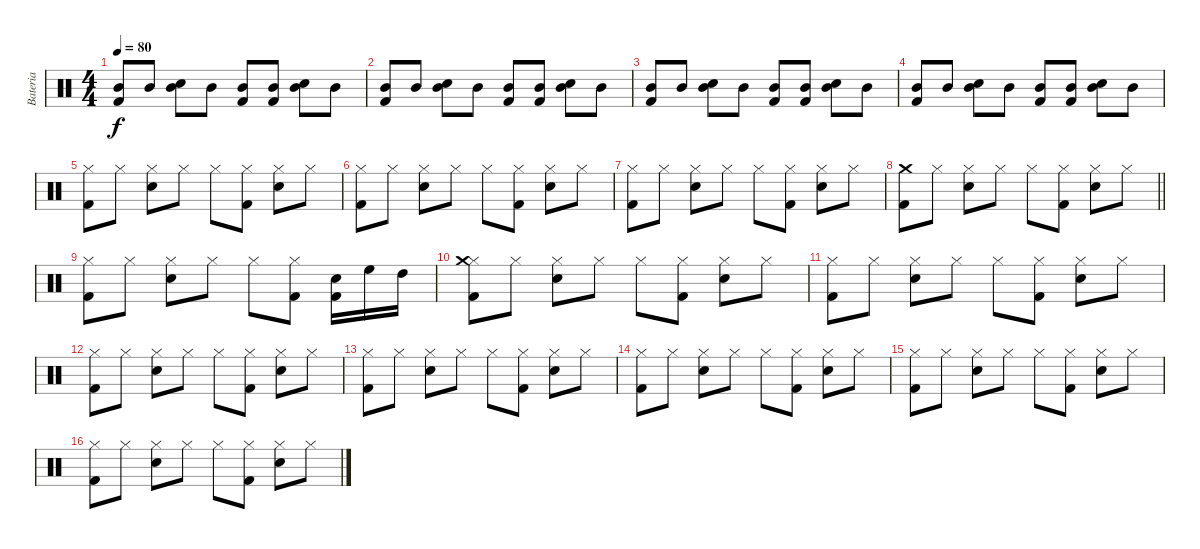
\track ("Bateria" "Bateria") {instrument percussion}
\staff {score}
\articulation defaults
\ts (4 4)
\tempo 80
\clef neutral
\ks c
("Mid Tom (hit)" "Kick (hit) 2").8{dy f} "Mid Tom (hit)".8 ("Mid Tom (hit)" "Snare (hit) 2").8 "Mid Tom (hit)".8 ("Mid Tom (hit)" "Kick (hit) 2").8 ("Mid Tom (hit)" "Kick (hit) 2").8 ("Mid Tom (hit)" "Snare (hit) 2").8 "Mid Tom (hit)".8 |
("Mid Tom (hit)" "Kick (hit) 2").8 "Mid Tom (hit)".8 ("Mid Tom (hit)" "Snare (hit) 2").8 "Mid Tom (hit)".8 ("Mid Tom (hit)" "Kick (hit) 2").8 ("Mid Tom (hit)" "Kick (hit) 2").8 ("Mid Tom (hit)" "Snare (hit) 2").8 "Mid Tom (hit)".8 |
("Mid Tom (hit)" "Kick (hit) 2").8 "Mid Tom (hit)".8 ("Mid Tom (hit)" "Snare (hit) 2").8 "Mid Tom (hit)".8 ("Mid Tom (hit)" "Kick (hit) 2").8 ("Mid Tom (hit)" "Kick (hit) 2").8 ("Mid Tom (hit)" "Snare (hit) 2").8 "Mid Tom (hit)".8 |
("Mid Tom (hit)" "Kick (hit) 2").8 "Mid Tom (hit)".8 ("Mid Tom (hit)" "Snare (hit) 2").8 "Mid Tom (hit)".8 ("Mid Tom (hit)" "Kick (hit) 2").8 ("Mid Tom (hit)" "Kick (hit) 2").8 ("Mid Tom (hit)" "Snare (hit) 2").8 "Mid Tom (hit)".8 |
("Hi-Hat (closed)" "Kick (hit) 2").8 "Hi-Hat (closed)".8 ("Hi-Hat (closed)" "Snare (hit) 2").8 "Hi-Hat (closed)".8 "Hi-Hat (closed)".8 ("Hi-Hat (closed)" "Kick (hit) 2").8 ("Hi-Hat (closed)" "Snare (hit) 2").8 "Hi-Hat (closed)".8 |
("Hi-Hat (closed)" "Kick (hit) 2").8 "Hi-Hat (closed)".8 ("Hi-Hat (closed)" "Snare (hit) 2").8 "Hi-Hat (closed)".8 "Hi-Hat (closed)".8 ("Hi-Hat (closed)" "Kick (hit) 2").8 ("Hi-Hat (closed)" "Snare (hit) 2").8 "Hi-Hat (closed)".8 |
("Hi-Hat (closed)" "Kick (hit) 2").8 "Hi-Hat (closed)".8 ("Hi-Hat (closed)" "Snare (hit) 2").8 "Hi-Hat (closed)".8 "Hi-Hat (closed)".8 ("Hi-Hat (closed)" "Kick (hit) 2").8 ("Hi-Hat (closed)" "Snare (hit) 2").8 "Hi-Hat (closed)".8 |
\barLineRight lightlight
("Kick (hit) 2" "Crash medium (hit)").8 "Hi-Hat (closed)".8 ("Hi-Hat (closed)" "Snare (hit) 2").8 "Hi-Hat (closed)".8 "Hi-Hat (closed)".8 ("Hi-Hat (closed)" "Kick (hit) 2").8 ("Hi-Hat (closed)" "Snare (hit) 2").8 "Hi-Hat (closed)".8 |
("Hi-Hat (closed)" "Kick (hit) 2").8 "Hi-Hat (closed)".8 ("Hi-Hat (closed)" "Snare (hit) 2").8 "Hi-Hat (closed)".8 "Hi-Hat (closed)".8 ("Hi-Hat (closed)" "Kick (hit) 2").8 ("Snare (hit) 2" "Kick (hit) 2").16 "High Floor Tom (hit)".16 "High Tom (hit)".16 |
("Hi-Hat (closed)" "Kick (hit) 2" "Crash medium (hit)").8 "Hi-Hat (closed)".8 ("Hi-Hat (closed)" "Snare (hit) 2").8 "Hi-Hat (closed)".8 "Hi-Hat (closed)".8 ("Hi-Hat (closed)" "Kick (hit) 2").8 ("Hi-Hat (closed)" "Snare (hit) 2").8 "Hi-Hat (closed)".8 |
("Hi-Hat (closed)" "Kick (hit) 2").8 "Hi-Hat (closed)".8 ("Hi-Hat (closed)" "Snare (hit) 2").8 "Hi-Hat (closed)".8 "Hi-Hat (closed)".8 ("Hi-Hat (closed)" "Kick (hit) 2").8 ("Hi-Hat (closed)" "Snare (hit) 2").8 "Hi-Hat (closed)".8 |
("Hi-Hat (closed)" "Kick (hit) 2").8 "Hi-Hat (closed)".8 ("Hi-Hat (closed)" "Snare (hit) 2").8 "Hi-Hat (closed)".8 "Hi-Hat (closed)".8 ("Hi-Hat (closed)" "Kick (hit) 2").8 ("Hi-Hat (closed)" "Snare (hit) 2").8 "Hi-Hat (closed)".8 |
("Hi-Hat (closed)" "Kick (hit) 2").8 "Hi-Hat (closed)".8 ("Hi-Hat (closed)" "Snare (hit) 2").8 "Hi-Hat (closed)".8 "Hi-Hat (closed)".8 ("Hi-Hat (closed)" "Kick (hit) 2").8 ("Hi-Hat (closed)" "Snare (hit) 2").8 "Hi-Hat (closed)".8 |
("Hi-Hat (closed)" "Kick (hit) 2").8 "Hi-Hat (closed)".8 ("Hi-Hat (closed)" "Snare (hit) 2").8 "Hi-Hat (closed)".8 "Hi-Hat (closed)".8 ("Hi-Hat (closed)" "Kick (hit) 2").8 ("Hi-Hat (closed)" "Snare (hit) 2").8 "Hi-Hat (closed)".8 |
("Hi-Hat (closed)" "Kick (hit) 2").8 "Hi-Hat (closed)".8 ("Hi-Hat (closed)" "Snare (hit) 2").8 "Hi-Hat (closed)".8 "Hi-Hat (closed)".8 ("Hi-Hat (closed)" "Kick (hit) 2").8 ("Hi-Hat (closed)" "Snare (hit) 2").8 "Hi-Hat (closed)".8 |
("Hi-Hat (closed)" "Kick (hit) 2").8 "Hi-Hat (closed)".8 ("Hi-Hat (closed)" "Snare (hit) 2").8 "Hi-Hat (closed)".8 "Hi-Hat (closed)".8 ("Hi-Hat (closed)" "Kick (hit) 2").8 ("Hi-Hat (closed)" "Snare (hit) 2").8 "Hi-Hat (closed)".8
